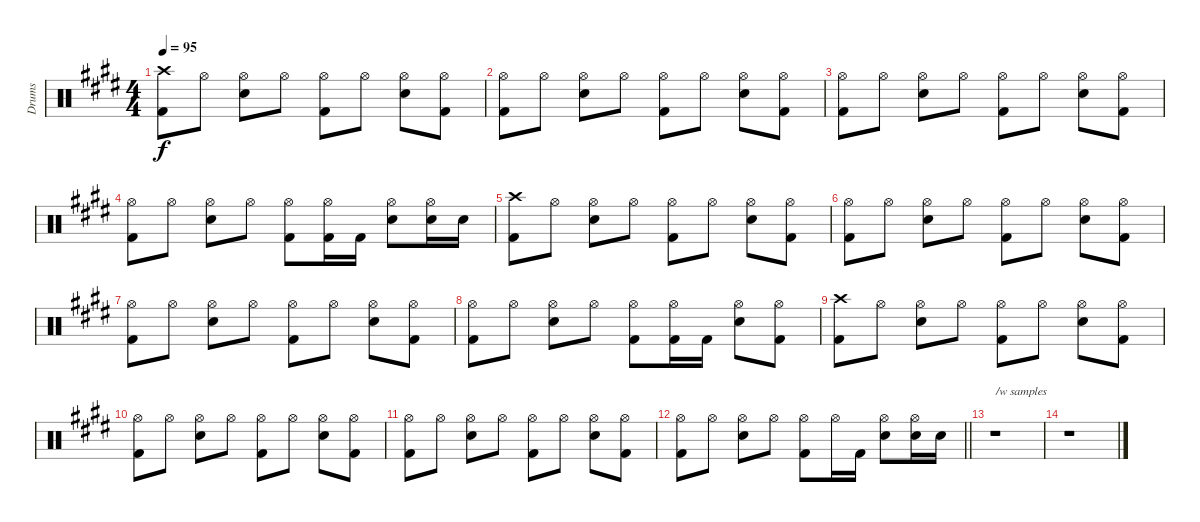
\track ("Drums" "Drums") {instrument percussion}
\staff {score}
\articulation defaults
\ts (4 4)
\tempo 95
\clef neutral
\ks e
("Crash high (hit)" "Kick (hit) 2").8{dy f} "Hi-Hat (open)".8 ("Hi-Hat (open)" "Snare (hit) 2").8 "Hi-Hat (open)".8 ("Hi-Hat (open)" "Kick (hit) 2").8 "Hi-Hat (open)".8 ("Hi-Hat (open)" "Snare (hit) 2").8 ("Hi-Hat (open)" "Kick (hit) 2").8 |
("Hi-Hat (open)" "Kick (hit) 2").8 "Hi-Hat (open)".8 ("Hi-Hat (open)" "Snare (hit) 2").8 "Hi-Hat (open)".8 ("Hi-Hat (open)" "Kick (hit) 2").8 "Hi-Hat (open)".8 ("Hi-Hat (open)" "Snare (hit) 2").8 ("Hi-Hat (open)" "Kick (hit) 2").8 |
("Hi-Hat (open)" "Kick (hit) 2").8 "Hi-Hat (open)".8 ("Hi-Hat (open)" "Snare (hit) 2").8 "Hi-Hat (open)".8 ("Hi-Hat (open)" "Kick (hit) 2").8 "Hi-Hat (open)".8 ("Hi-Hat (open)" "Snare (hit) 2").8 ("Hi-Hat (open)" "Kick (hit) 2").8 |
("Hi-Hat (open)" "Kick (hit) 2").8 "Hi-Hat (open)".8 ("Hi-Hat (open)" "Snare (hit) 2").8 "Hi-Hat (open)".8 ("Hi-Hat (open)" "Kick (hit) 2").8 ("Hi-Hat (open)" "Kick (hit) 2").16 "Kick (hit) 2".16 ("Hi-Hat (open)" "Snare (hit) 2").8 ("Hi-Hat (open)" "Snare (hit) 2").16 "Snare (hit) 2".16 |
("Crash high (hit)" "Kick (hit) 2").8 "Hi-Hat (open)".8 ("Hi-Hat (open)" "Snare (hit) 2").8 "Hi-Hat (open)".8 ("Hi-Hat (open)" "Kick (hit) 2").8 "Hi-Hat (open)".8 ("Hi-Hat (open)" "Snare (hit) 2").8 ("Hi-Hat (open)" "Kick (hit) 2").8 |
("Hi-Hat (open)" "Kick (hit) 2").8 "Hi-Hat (open)".8 ("Hi-Hat (open)" "Snare (hit) 2").8 "Hi-Hat (open)".8 ("Hi-Hat (open)" "Kick (hit) 2").8 "Hi-Hat (open)".8 ("Hi-Hat (open)" "Snare (hit) 2").8 ("Hi-Hat (open)" "Kick (hit) 2").8 |
("Hi-Hat (open)" "Kick (hit) 2").8 "Hi-Hat (open)".8 ("Hi-Hat (open)" "Snare (hit) 2").8 "Hi-Hat (open)".8 ("Hi-Hat (open)" "Kick (hit) 2").8 "Hi-Hat (open)".8 ("Hi-Hat (open)" "Snare (hit) 2").8 ("Hi-Hat (open)" "Kick (hit) 2").8 |
("Hi-Hat (open)" "Kick (hit) 2").8 "Hi-Hat (open)".8 ("Hi-Hat (open)" "Snare (hit) 2").8 "Hi-Hat (open)".8 ("Hi-Hat (open)" "Kick (hit) 2").8 ("Hi-Hat (open)" "Kick (hit) 2").16 "Kick (hit) 2".16 ("Hi-Hat (open)" "Snare (hit) 2").8 ("Hi-Hat (open)" "Kick (hit) 2").8 |
("Crash high (hit)" "Kick (hit) 2").8 "Hi-Hat (open)".8 ("Hi-Hat (open)" "Snare (hit) 2").8 "Hi-Hat (open)".8 ("Hi-Hat (open)" "Kick (hit) 2").8 "Hi-Hat (open)".8 ("Hi-Hat (open)" "Snare (hit) 2").8 ("Hi-Hat (open)" "Kick (hit) 2").8 |
("Hi-Hat (open)" "Kick (hit) 2").8 "Hi-Hat (open)".8 ("Hi-Hat (open)" "Snare (hit) 2").8 "Hi-Hat (open)".8 ("Hi-Hat (open)" "Kick (hit) 2").8 "Hi-Hat (open)".8 ("Hi-Hat (open)" "Snare (hit) 2").8 ("Hi-Hat (open)" "Kick (hit) 2").8 |
("Hi-Hat (open)" "Kick (hit) 2").8 "Hi-Hat (open)".8 ("Hi-Hat (open)" "Snare (hit) 2").8 "Hi-Hat (open)".8 ("Hi-Hat (open)" "Kick (hit) 2").8 "Hi-Hat (open)".8 ("Hi-Hat (open)" "Snare (hit) 2").8 ("Hi-Hat (open)" "Kick (hit) 2").8 |
\barLineRight lightlight
("Hi-Hat (open)" "Kick (hit) 2").8 "Hi-Hat (open)".8 ("Hi-Hat (open)" "Snare (hit) 2").8 "Hi-Hat (open)".8 ("Hi-Hat (open)" "Kick (hit) 2").8 "Hi-Hat (open)".16 "Kick (hit) 2".16 ("Hi-Hat (open)" "Snare (hit) 2").8 ("Hi-Hat (open)" "Snare (hit) 2").16 "Snare (hit) 2".16 |
r.1{txt "/w samples"} |
r.1
